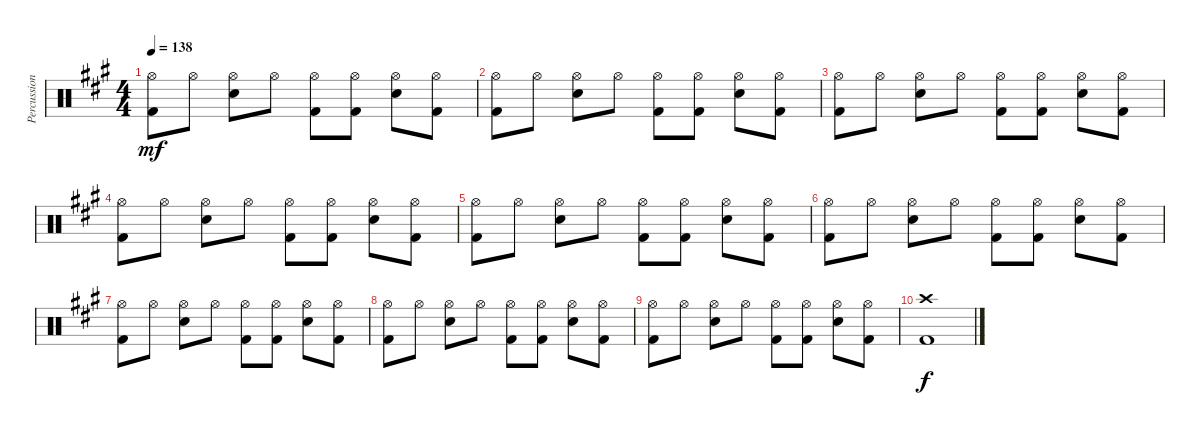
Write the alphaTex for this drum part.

\track ("Percussion" "Percussion") {instrument percussion}
\staff {score}
\articulation defaults
\ts (4 4)
\tempo 138
\clef neutral
\ks a
("Hi-Hat (open)" "Kick (hit) 2").8{dy mf} "Hi-Hat (open)".8 ("Hi-Hat (open)" "Snare (hit) 2").8 "Hi-Hat (open)".8 ("Hi-Hat (open)" "Kick (hit) 2").8 ("Hi-Hat (open)" "Kick (hit) 2").8 ("Hi-Hat (open)" "Snare (hit) 2").8 ("Hi-Hat (open)" "Kick (hit) 2").8 |
("Hi-Hat (open)" "Kick (hit) 2").8 "Hi-Hat (open)".8 ("Hi-Hat (open)" "Snare (hit) 2").8 "Hi-Hat (open)".8 ("Hi-Hat (open)" "Kick (hit) 2").8 ("Hi-Hat (open)" "Kick (hit) 2").8 ("Hi-Hat (open)" "Snare (hit) 2").8 ("Hi-Hat (open)" "Kick (hit) 2").8 |
("Hi-Hat (open)" "Kick (hit) 2").8 "Hi-Hat (open)".8 ("Hi-Hat (open)" "Snare (hit) 2").8 "Hi-Hat (open)".8 ("Hi-Hat (open)" "Kick (hit) 2").8 ("Hi-Hat (open)" "Kick (hit) 2").8 ("Hi-Hat (open)" "Snare (hit) 2").8 ("Hi-Hat (open)" "Kick (hit) 2").8 |
("Hi-Hat (open)" "Kick (hit) 2").8 "Hi-Hat (open)".8 ("Hi-Hat (open)" "Snare (hit) 2").8 "Hi-Hat (open)".8 ("Hi-Hat (open)" "Kick (hit) 2").8 ("Hi-Hat (open)" "Kick (hit) 2").8 ("Hi-Hat (open)" "Snare (hit) 2").8 ("Hi-Hat (open)" "Kick (hit) 2").8 |
("Hi-Hat (open)" "Kick (hit) 2").8 "Hi-Hat (open)".8 ("Hi-Hat (open)" "Snare (hit) 2").8 "Hi-Hat (open)".8 ("Hi-Hat (open)" "Kick (hit) 2").8 ("Hi-Hat (open)" "Kick (hit) 2").8 ("Hi-Hat (open)" "Snare (hit) 2").8 ("Hi-Hat (open)" "Kick (hit) 2").8 |
("Hi-Hat (open)" "Kick (hit) 2").8 "Hi-Hat (open)".8 ("Hi-Hat (open)" "Snare (hit) 2").8 "Hi-Hat (open)".8 ("Hi-Hat (open)" "Kick (hit) 2").8 ("Hi-Hat (open)" "Kick (hit) 2").8 ("Hi-Hat (open)" "Snare (hit) 2").8 ("Hi-Hat (open)" "Kick (hit) 2").8 |
("Hi-Hat (open)" "Kick (hit) 2").8 "Hi-Hat (open)".8 ("Hi-Hat (open)" "Snare (hit) 2").8 "Hi-Hat (open)".8 ("Hi-Hat (open)" "Kick (hit) 2").8 ("Hi-Hat (open)" "Kick (hit) 2").8 ("Hi-Hat (open)" "Snare (hit) 2").8 ("Hi-Hat (open)" "Kick (hit) 2").8 |
("Hi-Hat (open)" "Kick (hit) 2").8 "Hi-Hat (open)".8 ("Hi-Hat (open)" "Snare (hit) 2").8 "Hi-Hat (open)".8 ("Hi-Hat (open)" "Kick (hit) 2").8 ("Hi-Hat (open)" "Kick (hit) 2").8 ("Hi-Hat (open)" "Snare (hit) 2").8 ("Hi-Hat (open)" "Kick (hit) 2").8 |
("Hi-Hat (open)" "Kick (hit) 2").8 "Hi-Hat (open)".8 ("Hi-Hat (open)" "Snare (hit) 2").8 "Hi-Hat (open)".8 ("Hi-Hat (open)" "Kick (hit) 2").8 ("Hi-Hat (open)" "Kick (hit) 2").8 ("Hi-Hat (open)" "Snare (hit) 2").8 ("Hi-Hat (open)" "Kick (hit) 2").8 |
("Crash high (hit)" "Kick (hit) 2").1{dy f}
